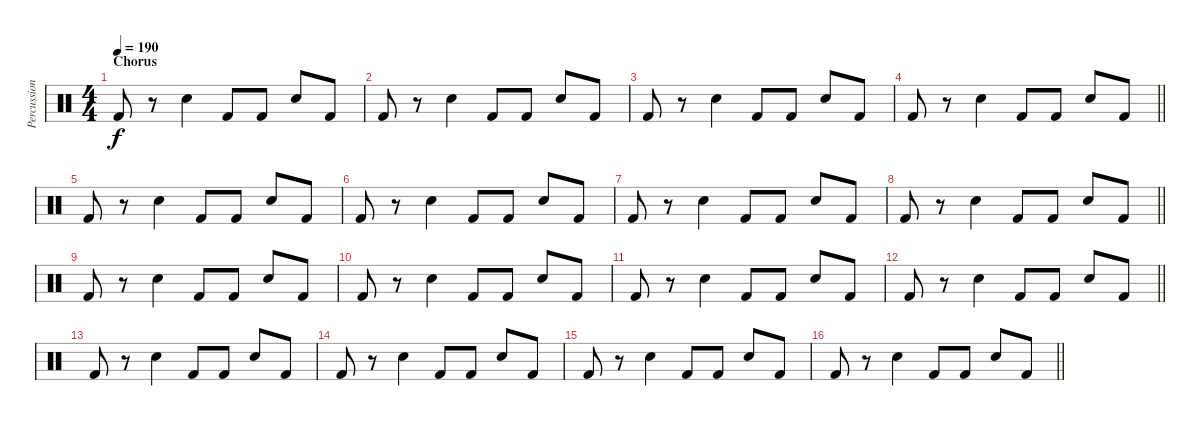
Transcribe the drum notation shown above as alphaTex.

\track ("Percussion" "Percussion") {instrument percussion}
\staff {score}
\articulation defaults
\ts (4 4)
\section ("" "Chorus")
\tempo 190
\clef neutral
\ks c "Kick (hit) 2".8{dy f}
r.8 "Electric Snare (hit)".4 "Kick (hit) 2".8 "Kick (hit) 2".8 "Electric Snare (hit)".8 "Kick (hit) 2".8 |
"Kick (hit) 2".8 r.8 "Electric Snare (hit)".4 "Kick (hit) 2".8 "Kick (hit) 2".8 "Electric Snare (hit)".8 "Kick (hit) 2".8 |
"Kick (hit) 2".8 r.8 "Electric Snare (hit)".4 "Kick (hit) 2".8 "Kick (hit) 2".8 "Electric Snare (hit)".8 "Kick (hit) 2".8 |
\barLineRight lightlight "Kick (hit) 2".8
r.8 "Electric Snare (hit)".4 "Kick (hit) 2".8 "Kick (hit) 2".8 "Electric Snare (hit)".8 "Kick (hit) 2".8 |
"Kick (hit) 2".8 r.8 "Electric Snare (hit)".4 "Kick (hit) 2".8 "Kick (hit) 2".8 "Electric Snare (hit)".8 "Kick (hit) 2".8 |
"Kick (hit) 2".8 r.8 "Electric Snare (hit)".4 "Kick (hit) 2".8 "Kick (hit) 2".8 "Electric Snare (hit)".8 "Kick (hit) 2".8 |
"Kick (hit) 2".8 r.8 "Electric Snare (hit)".4 "Kick (hit) 2".8 "Kick (hit) 2".8 "Electric Snare (hit)".8 "Kick (hit) 2".8 |
\barLineRight lightlight "Kick (hit) 2".8
r.8 "Electric Snare (hit)".4 "Kick (hit) 2".8 "Kick (hit) 2".8 "Electric Snare (hit)".8 "Kick (hit) 2".8 |
"Kick (hit) 2".8 r.8 "Electric Snare (hit)".4 "Kick (hit) 2".8 "Kick (hit) 2".8 "Electric Snare (hit)".8 "Kick (hit) 2".8 |
"Kick (hit) 2".8 r.8 "Electric Snare (hit)".4 "Kick (hit) 2".8 "Kick (hit) 2".8 "Electric Snare (hit)".8 "Kick (hit) 2".8 |
"Kick (hit) 2".8 r.8 "Electric Snare (hit)".4 "Kick (hit) 2".8 "Kick (hit) 2".8 "Electric Snare (hit)".8 "Kick (hit) 2".8 |
\barLineRight lightlight "Kick (hit) 2".8
r.8 "Electric Snare (hit)".4 "Kick (hit) 2".8 "Kick (hit) 2".8 "Electric Snare (hit)".8 "Kick (hit) 2".8 |
"Kick (hit) 2".8 r.8 "Electric Snare (hit)".4 "Kick (hit) 2".8 "Kick (hit) 2".8 "Electric Snare (hit)".8 "Kick (hit) 2".8 |
"Kick (hit) 2".8 r.8 "Electric Snare (hit)".4 "Kick (hit) 2".8 "Kick (hit) 2".8 "Electric Snare (hit)".8 "Kick (hit) 2".8 |
"Kick (hit) 2".8 r.8 "Electric Snare (hit)".4 "Kick (hit) 2".8 "Kick (hit) 2".8 "Electric Snare (hit)".8 "Kick (hit) 2".8 |
\barLineRight lightlight "Kick (hit) 2".8
r.8 "Electric Snare (hit)".4 "Kick (hit) 2".8 "Kick (hit) 2".8 "Electric Snare (hit)".8 "Kick (hit) 2".8
